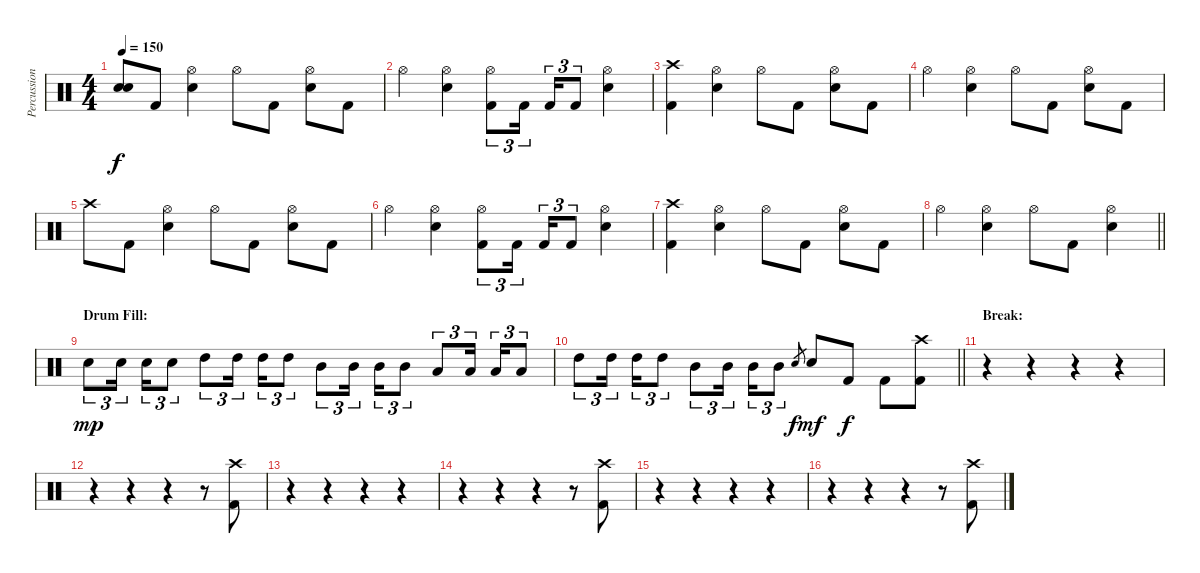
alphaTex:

\track ("Percussion" "Percussion") {instrument percussion}
\staff {score}
\articulation defaults
\ts (4 4)
\tempo 150
\clef neutral
\ks c
("Snare (hit)"{t} "Snare (hit)"{t}).8{dy f} "Kick (hit) 2".8 ("Hi-Hat (open)" "Snare (hit) 2").4 "Hi-Hat (open)".8 "Kick (hit) 2".8 ("Hi-Hat (open)" "Snare (hit) 2").8 "Kick (hit) 2".8 |
"Hi-Hat (open)".4 ("Hi-Hat (open)" "Snare (hit) 2").4 ("Hi-Hat (open)" "Kick (hit) 2").8{tu (3 2)} "Kick (hit) 2".16{tu (3 2) beam splitsecondary} "Kick (hit) 2".16{tu (3 2)} "Kick (hit) 2".8{tu (3 2)} ("Hi-Hat (open)" "Snare (hit) 2").4 |
("Crash high (hit)" "Kick (hit) 2").4 ("Hi-Hat (open)" "Snare (hit) 2").4 "Hi-Hat (open)".8 "Kick (hit) 2".8 ("Hi-Hat (open)" "Snare (hit) 2").8 "Kick (hit) 2".8 |
"Hi-Hat (open)".4 ("Hi-Hat (open)" "Snare (hit) 2").4 "Hi-Hat (open)".8 "Kick (hit) 2".8 ("Hi-Hat (open)" "Snare (hit) 2").8 "Kick (hit) 2".8 |
"Crash high (hit)".8 "Kick (hit) 2".8 ("Hi-Hat (open)" "Snare (hit) 2").4 "Hi-Hat (open)".8 "Kick (hit) 2".8 ("Hi-Hat (open)" "Snare (hit) 2").8 "Kick (hit) 2".8 |
"Hi-Hat (open)".4 ("Hi-Hat (open)" "Snare (hit) 2").4 ("Hi-Hat (open)" "Kick (hit) 2").8{tu (3 2)} "Kick (hit) 2".16{tu (3 2) beam splitsecondary} "Kick (hit) 2".16{tu (3 2)} "Kick (hit) 2".8{tu (3 2)} ("Hi-Hat (open)" "Snare (hit) 2").4 |
("Crash high (hit)" "Kick (hit) 2").4 ("Hi-Hat (open)" "Snare (hit) 2").4 "Hi-Hat (open)".8 "Kick (hit) 2".8 ("Hi-Hat (open)" "Snare (hit) 2").8 "Kick (hit) 2".8 |
\barLineRight lightlight "Hi-Hat (open)".4
("Hi-Hat (open)" "Snare (hit) 2").4 "Hi-Hat (open)".8 "Kick (hit) 2".8 ("Hi-Hat (open)" "Snare (hit) 2").4 |
\section ("" "Drum Fill:")
"Snare (hit) 2".8{tu (3 2) dy mp} "Snare (hit) 2".16{tu (3 2) beam splitsecondary} "Snare (hit) 2".16{tu (3 2)} "Snare (hit) 2".8{tu (3 2)} "High Tom (hit)".8{tu (3 2)} "High Tom (hit)".16{tu (3 2) beam splitsecondary} "High Tom (hit)".16{tu (3 2)} "High Tom (hit)".8{tu (3 2)} "Mid Tom (hit)".8{tu (3 2)} "Mid Tom (hit)".16{tu (3 2) beam splitsecondary} "Mid Tom (hit)".16{tu (3 2)} "Mid Tom (hit)".8{tu (3 2)} "Low Tom (hit)".8{tu (3 2)} "Low Tom (hit)".16{tu (3 2) beam splitsecondary} "Low Tom (hit)".16{tu (3 2)} "Low Tom (hit)".8{tu (3 2)} |
\barLineRight lightlight "High Tom (hit)".8{tu (3 2)} "High Tom (hit)".16{tu (3 2) beam splitsecondary} "High Tom (hit)".16{tu (3 2)} "High Tom (hit)".8{tu (3 2)} "Mid Tom (hit)".8{tu (3 2)} "Mid Tom (hit)".16{tu (3 2) beam splitsecondary} "Mid Tom (hit)".16{tu (3 2)} "Mid Tom (hit)".8{tu (3 2)} "Snare (hit) 2".8{gr dy f} "Snare (hit) 2".8{dy mf} "Kick (hit) 2".8{dy f} "Kick (hit) 2".8
("Crash high (hit)" "Kick (hit) 2").8 |
\section ("" "Break:")
r.4 r.4 r.4 r.4 |
r.4 r.4 r.4 r.8 ("Crash high (hit)" "Kick (hit) 2").8 |
r.4 r.4 r.4 r.4 |
r.4 r.4 r.4 r.8 ("Crash high (hit)" "Kick (hit) 2").8 |
r.4 r.4 r.4 r.4 |
r.4 r.4 r.4 r.8 ("Crash high (hit)" "Kick (hit) 2").8
